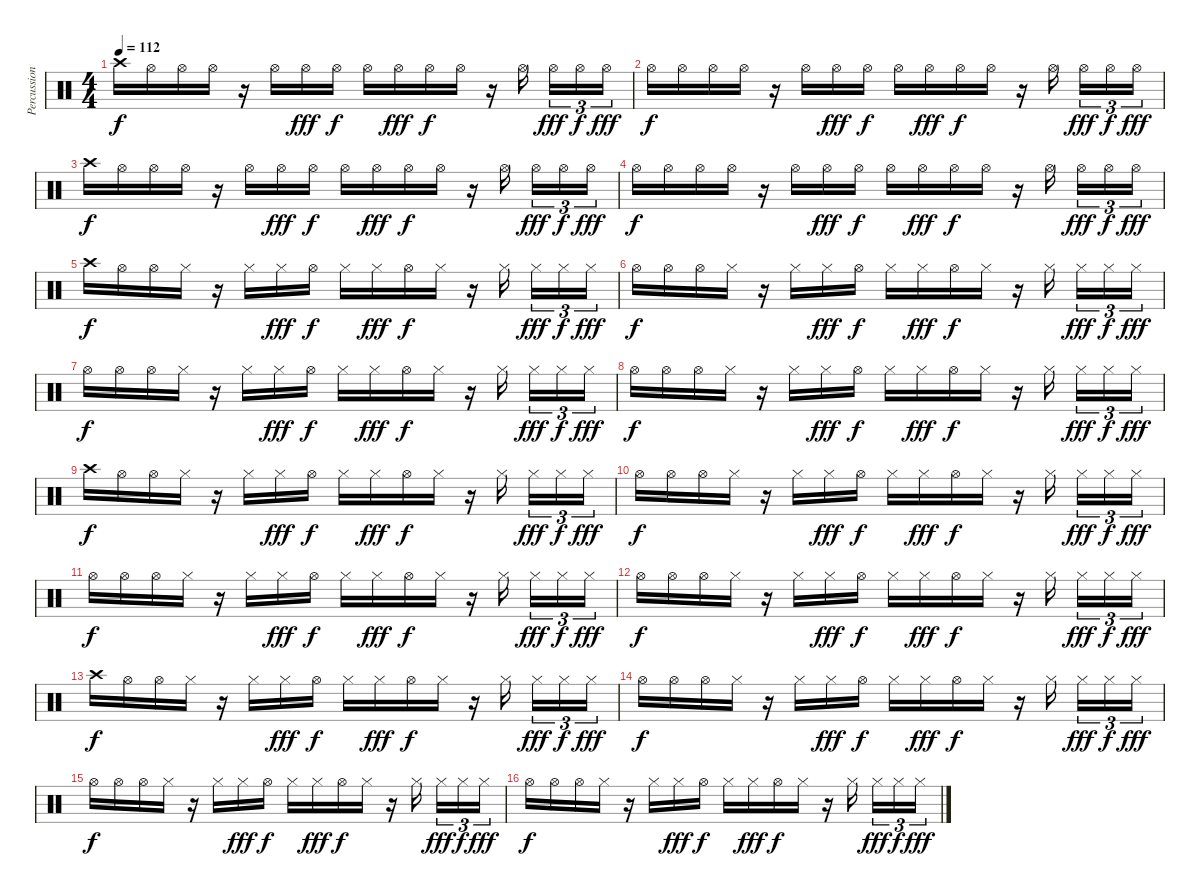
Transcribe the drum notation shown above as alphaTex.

\track ("Percussion" "Percussion") {instrument percussion}
\staff {score}
\articulation defaults
\ts (4 4)
\tempo 112
\clef neutral
\ks c "Crash high (hit)".16{dy f} "Hi-Hat (open)".16 "Hi-Hat (open)".16 "Hi-Hat (open)".16
r.16 "Hi-Hat (open)".16 "Hi-Hat (open)".16{dy fff} "Hi-Hat (open)".16{dy f} "Hi-Hat (open)".16 "Hi-Hat (open)".16{dy fff} "Hi-Hat (open)".16{dy f} "Hi-Hat (open)".16 r.16 "Hi-Hat (open)".16{beam splitsecondary} "Hi-Hat (open)".16{tu (3 2) dy fff} "Hi-Hat (open)".16{tu (3 2) dy f} "Hi-Hat (open)".16{tu (3 2) dy fff} |
"Hi-Hat (open)".16{dy f} "Hi-Hat (open)".16 "Hi-Hat (open)".16 "Hi-Hat (open)".16 r.16 "Hi-Hat (open)".16 "Hi-Hat (open)".16{dy fff} "Hi-Hat (open)".16{dy f} "Hi-Hat (open)".16 "Hi-Hat (open)".16{dy fff} "Hi-Hat (open)".16{dy f} "Hi-Hat (open)".16 r.16 "Hi-Hat (open)".16{beam splitsecondary} "Hi-Hat (open)".16{tu (3 2) dy fff} "Hi-Hat (open)".16{tu (3 2) dy f} "Hi-Hat (open)".16{tu (3 2) dy fff} |
"Crash high (hit)".16{dy f} "Hi-Hat (open)".16 "Hi-Hat (open)".16 "Hi-Hat (open)".16 r.16 "Hi-Hat (open)".16 "Hi-Hat (open)".16{dy fff} "Hi-Hat (open)".16{dy f} "Hi-Hat (open)".16 "Hi-Hat (open)".16{dy fff} "Hi-Hat (open)".16{dy f} "Hi-Hat (open)".16 r.16 "Hi-Hat (open)".16{beam splitsecondary} "Hi-Hat (open)".16{tu (3 2) dy fff} "Hi-Hat (open)".16{tu (3 2) dy f} "Hi-Hat (open)".16{tu (3 2) dy fff} |
"Hi-Hat (open)".16{dy f} "Hi-Hat (open)".16 "Hi-Hat (open)".16 "Hi-Hat (open)".16 r.16 "Hi-Hat (open)".16 "Hi-Hat (open)".16{dy fff} "Hi-Hat (open)".16{dy f} "Hi-Hat (open)".16 "Hi-Hat (open)".16{dy fff} "Hi-Hat (open)".16{dy f} "Hi-Hat (open)".16 r.16 "Hi-Hat (open)".16{beam splitsecondary} "Hi-Hat (open)".16{tu (3 2) dy fff} "Hi-Hat (open)".16{tu (3 2) dy f} "Hi-Hat (open)".16{tu (3 2) dy fff} |
"Crash high (hit)".16{dy f} "Hi-Hat (open)".16 "Hi-Hat (open)".16 "Hi-Hat (closed)".16 r.16 "Hi-Hat (closed)".16 "Hi-Hat (closed)".16{dy fff} "Hi-Hat (open)".16{dy f} "Hi-Hat (closed)".16 "Hi-Hat (closed)".16{dy fff} "Hi-Hat (open)".16{dy f} "Hi-Hat (closed)".16 r.16 "Hi-Hat (closed)".16{beam splitsecondary} "Hi-Hat (closed)".16{tu (3 2) dy fff} "Hi-Hat (closed)".16{tu (3 2) dy f} "Hi-Hat (closed)".16{tu (3 2) dy fff} |
"Hi-Hat (open)".16{dy f} "Hi-Hat (open)".16 "Hi-Hat (open)".16 "Hi-Hat (closed)".16 r.16 "Hi-Hat (closed)".16 "Hi-Hat (closed)".16{dy fff} "Hi-Hat (open)".16{dy f} "Hi-Hat (closed)".16 "Hi-Hat (closed)".16{dy fff} "Hi-Hat (open)".16{dy f} "Hi-Hat (closed)".16 r.16 "Hi-Hat (closed)".16{beam splitsecondary} "Hi-Hat (closed)".16{tu (3 2) dy fff} "Hi-Hat (closed)".16{tu (3 2) dy f} "Hi-Hat (closed)".16{tu (3 2) dy fff} |
"Hi-Hat (open)".16{dy f} "Hi-Hat (open)".16 "Hi-Hat (open)".16 "Hi-Hat (closed)".16 r.16 "Hi-Hat (closed)".16 "Hi-Hat (closed)".16{dy fff} "Hi-Hat (open)".16{dy f} "Hi-Hat (closed)".16 "Hi-Hat (closed)".16{dy fff} "Hi-Hat (open)".16{dy f} "Hi-Hat (closed)".16 r.16 "Hi-Hat (closed)".16{beam splitsecondary} "Hi-Hat (closed)".16{tu (3 2) dy fff} "Hi-Hat (closed)".16{tu (3 2) dy f} "Hi-Hat (closed)".16{tu (3 2) dy fff} |
"Hi-Hat (open)".16{dy f} "Hi-Hat (open)".16 "Hi-Hat (open)".16 "Hi-Hat (closed)".16 r.16 "Hi-Hat (closed)".16 "Hi-Hat (closed)".16{dy fff} "Hi-Hat (open)".16{dy f} "Hi-Hat (closed)".16 "Hi-Hat (closed)".16{dy fff} "Hi-Hat (open)".16{dy f} "Hi-Hat (closed)".16 r.16 "Hi-Hat (closed)".16{beam splitsecondary} "Hi-Hat (closed)".16{tu (3 2) dy fff} "Hi-Hat (closed)".16{tu (3 2) dy f} "Hi-Hat (closed)".16{tu (3 2) dy fff} |
"Crash high (hit)".16{dy f} "Hi-Hat (open)".16 "Hi-Hat (open)".16 "Hi-Hat (closed)".16 r.16 "Hi-Hat (closed)".16 "Hi-Hat (closed)".16{dy fff} "Hi-Hat (open)".16{dy f} "Hi-Hat (closed)".16 "Hi-Hat (closed)".16{dy fff} "Hi-Hat (open)".16{dy f} "Hi-Hat (closed)".16 r.16 "Hi-Hat (closed)".16{beam splitsecondary} "Hi-Hat (closed)".16{tu (3 2) dy fff} "Hi-Hat (closed)".16{tu (3 2) dy f} "Hi-Hat (closed)".16{tu (3 2) dy fff} |
"Hi-Hat (open)".16{dy f} "Hi-Hat (open)".16 "Hi-Hat (open)".16 "Hi-Hat (closed)".16 r.16 "Hi-Hat (closed)".16 "Hi-Hat (closed)".16{dy fff} "Hi-Hat (open)".16{dy f} "Hi-Hat (closed)".16 "Hi-Hat (closed)".16{dy fff} "Hi-Hat (open)".16{dy f} "Hi-Hat (closed)".16 r.16 "Hi-Hat (closed)".16{beam splitsecondary} "Hi-Hat (closed)".16{tu (3 2) dy fff} "Hi-Hat (closed)".16{tu (3 2) dy f} "Hi-Hat (closed)".16{tu (3 2) dy fff} |
"Hi-Hat (open)".16{dy f} "Hi-Hat (open)".16 "Hi-Hat (open)".16 "Hi-Hat (closed)".16 r.16 "Hi-Hat (closed)".16 "Hi-Hat (closed)".16{dy fff} "Hi-Hat (open)".16{dy f} "Hi-Hat (closed)".16 "Hi-Hat (closed)".16{dy fff} "Hi-Hat (open)".16{dy f} "Hi-Hat (closed)".16 r.16 "Hi-Hat (closed)".16{beam splitsecondary} "Hi-Hat (closed)".16{tu (3 2) dy fff} "Hi-Hat (closed)".16{tu (3 2) dy f} "Hi-Hat (closed)".16{tu (3 2) dy fff} |
"Hi-Hat (open)".16{dy f} "Hi-Hat (open)".16 "Hi-Hat (open)".16 "Hi-Hat (closed)".16 r.16 "Hi-Hat (closed)".16 "Hi-Hat (closed)".16{dy fff} "Hi-Hat (open)".16{dy f} "Hi-Hat (closed)".16 "Hi-Hat (closed)".16{dy fff} "Hi-Hat (open)".16{dy f} "Hi-Hat (closed)".16 r.16 "Hi-Hat (closed)".16{beam splitsecondary} "Hi-Hat (closed)".16{tu (3 2) dy fff} "Hi-Hat (closed)".16{tu (3 2) dy f} "Hi-Hat (closed)".16{tu (3 2) dy fff} |
"Crash high (hit)".16{dy f} "Hi-Hat (open)".16 "Hi-Hat (open)".16 "Hi-Hat (closed)".16 r.16 "Hi-Hat (closed)".16 "Hi-Hat (closed)".16{dy fff} "Hi-Hat (open)".16{dy f} "Hi-Hat (closed)".16 "Hi-Hat (closed)".16{dy fff} "Hi-Hat (open)".16{dy f} "Hi-Hat (closed)".16 r.16 "Hi-Hat (closed)".16{beam splitsecondary} "Hi-Hat (closed)".16{tu (3 2) dy fff} "Hi-Hat (closed)".16{tu (3 2) dy f} "Hi-Hat (closed)".16{tu (3 2) dy fff} |
"Hi-Hat (open)".16{dy f} "Hi-Hat (open)".16 "Hi-Hat (open)".16 "Hi-Hat (closed)".16 r.16 "Hi-Hat (closed)".16 "Hi-Hat (closed)".16{dy fff} "Hi-Hat (open)".16{dy f} "Hi-Hat (closed)".16 "Hi-Hat (closed)".16{dy fff} "Hi-Hat (open)".16{dy f} "Hi-Hat (closed)".16 r.16 "Hi-Hat (closed)".16{beam splitsecondary} "Hi-Hat (closed)".16{tu (3 2) dy fff} "Hi-Hat (closed)".16{tu (3 2) dy f} "Hi-Hat (closed)".16{tu (3 2) dy fff} |
"Hi-Hat (open)".16{dy f} "Hi-Hat (open)".16 "Hi-Hat (open)".16 "Hi-Hat (closed)".16 r.16 "Hi-Hat (closed)".16 "Hi-Hat (closed)".16{dy fff} "Hi-Hat (open)".16{dy f} "Hi-Hat (closed)".16 "Hi-Hat (closed)".16{dy fff} "Hi-Hat (open)".16{dy f} "Hi-Hat (closed)".16 r.16 "Hi-Hat (closed)".16{beam splitsecondary} "Hi-Hat (closed)".16{tu (3 2) dy fff} "Hi-Hat (closed)".16{tu (3 2) dy f} "Hi-Hat (closed)".16{tu (3 2) dy fff} |
"Hi-Hat (open)".16{dy f} "Hi-Hat (open)".16 "Hi-Hat (open)".16 "Hi-Hat (closed)".16 r.16 "Hi-Hat (closed)".16 "Hi-Hat (closed)".16{dy fff} "Hi-Hat (open)".16{dy f} "Hi-Hat (closed)".16 "Hi-Hat (closed)".16{dy fff} "Hi-Hat (open)".16{dy f} "Hi-Hat (closed)".16 r.16 "Hi-Hat (closed)".16{beam splitsecondary} "Hi-Hat (closed)".16{tu (3 2) dy fff} "Hi-Hat (closed)".16{tu (3 2) dy f} "Hi-Hat (closed)".16{tu (3 2) dy fff}
